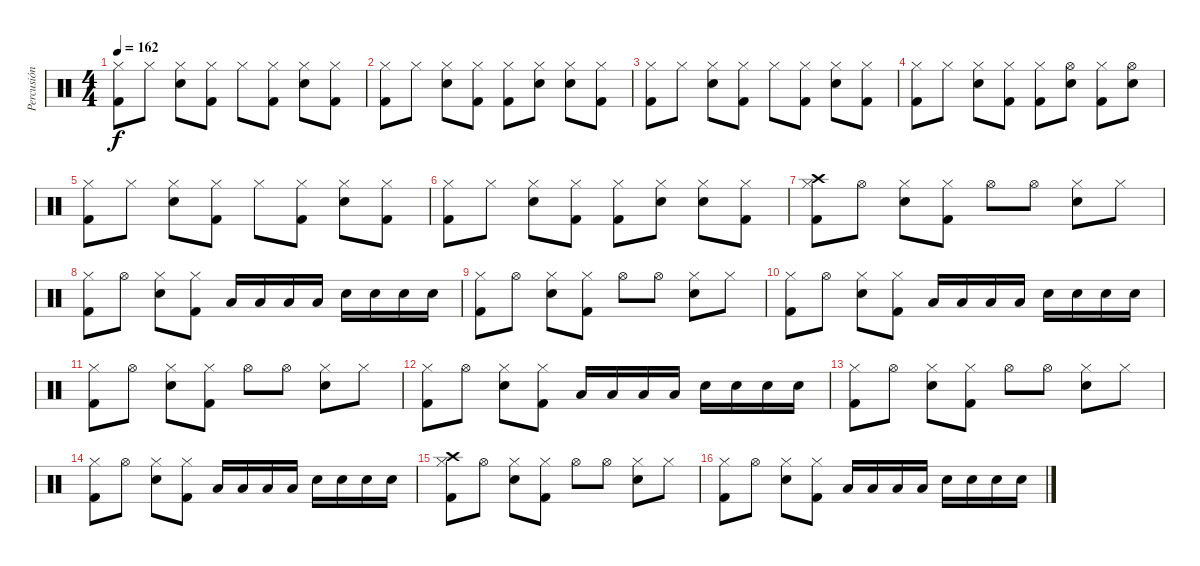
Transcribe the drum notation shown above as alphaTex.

\track ("Percusión" "Percusión") {instrument percussion}
\staff {score}
\articulation defaults
\ts (4 4)
\tempo 162
\clef neutral
\ks c
("Hi-Hat (closed)" "Kick (hit) 2").8{dy f} "Hi-Hat (closed)".8 ("Hi-Hat (closed)" "Snare (hit) 2").8 ("Hi-Hat (closed)" "Kick (hit) 2").8 "Hi-Hat (closed)".8 ("Hi-Hat (closed)" "Kick (hit) 2").8 ("Hi-Hat (closed)" "Snare (hit) 2").8 ("Hi-Hat (closed)" "Kick (hit) 2").8 |
("Hi-Hat (closed)" "Kick (hit) 2").8 "Hi-Hat (closed)".8 ("Hi-Hat (closed)" "Snare (hit) 2").8 ("Hi-Hat (closed)" "Kick (hit) 2").8 ("Hi-Hat (closed)" "Kick (hit) 2").8 ("Hi-Hat (closed)" "Snare (hit) 2").8 ("Hi-Hat (closed)" "Snare (hit) 2").8 ("Hi-Hat (closed)" "Kick (hit) 2").8 |
("Hi-Hat (closed)" "Kick (hit) 2").8 "Hi-Hat (closed)".8 ("Hi-Hat (closed)" "Snare (hit) 2").8 ("Hi-Hat (closed)" "Kick (hit) 2").8 "Hi-Hat (closed)".8 ("Hi-Hat (closed)" "Kick (hit) 2").8 ("Hi-Hat (closed)" "Snare (hit) 2").8 ("Hi-Hat (closed)" "Kick (hit) 2").8 |
("Hi-Hat (closed)" "Kick (hit) 2").8 "Hi-Hat (closed)".8 ("Hi-Hat (closed)" "Snare (hit) 2").8 ("Hi-Hat (closed)" "Kick (hit) 2").8 ("Hi-Hat (closed)" "Kick (hit) 2").8 ("Hi-Hat (open)" "Snare (hit) 2").8 ("Hi-Hat (closed)" "Kick (hit) 2").8 ("Hi-Hat (open)" "Snare (hit) 2").8 |
("Hi-Hat (closed)" "Kick (hit) 2").8 "Hi-Hat (closed)".8 ("Hi-Hat (closed)" "Snare (hit) 2").8 ("Hi-Hat (closed)" "Kick (hit) 2").8 "Hi-Hat (closed)".8 ("Hi-Hat (closed)" "Kick (hit) 2").8 ("Hi-Hat (closed)" "Snare (hit) 2").8 ("Hi-Hat (closed)" "Kick (hit) 2").8 |
("Hi-Hat (closed)" "Kick (hit) 2").8 "Hi-Hat (closed)".8 ("Hi-Hat (closed)" "Snare (hit) 2").8 ("Hi-Hat (closed)" "Kick (hit) 2").8 ("Hi-Hat (closed)" "Kick (hit) 2").8 ("Hi-Hat (closed)" "Snare (hit) 2").8 ("Hi-Hat (closed)" "Snare (hit) 2").8 ("Hi-Hat (closed)" "Kick (hit) 2").8 |
("Crash high (hit)" "Hi-Hat (closed)" "Kick (hit) 2").8 "Hi-Hat (open)".8 ("Hi-Hat (closed)" "Snare (hit) 2").8 ("Hi-Hat (closed)" "Kick (hit) 2").8 "Hi-Hat (open)".8 "Hi-Hat (open)".8 ("Hi-Hat (closed)" "Snare (hit) 2").8 "Hi-Hat (closed)".8 |
("Hi-Hat (closed)" "Kick (hit) 2").8 "Hi-Hat (open)".8 ("Hi-Hat (closed)" "Snare (hit) 2").8 ("Hi-Hat (closed)" "Kick (hit) 2").8 "Low Tom (hit)".16 "Low Tom (hit)".16 "Low Tom (hit)".16 "Low Tom (hit)".16 "Snare (hit) 2".16 "Snare (hit) 2".16 "Snare (hit) 2".16 "Snare (hit) 2".16 |
("Hi-Hat (closed)" "Kick (hit) 2").8 "Hi-Hat (open)".8 ("Hi-Hat (closed)" "Snare (hit) 2").8 ("Hi-Hat (closed)" "Kick (hit) 2").8 "Hi-Hat (open)".8 "Hi-Hat (open)".8 ("Hi-Hat (closed)" "Snare (hit) 2").8 "Hi-Hat (closed)".8 |
("Hi-Hat (closed)" "Kick (hit) 2").8 "Hi-Hat (open)".8 ("Hi-Hat (closed)" "Snare (hit) 2").8 ("Hi-Hat (closed)" "Kick (hit) 2").8 "Low Tom (hit)".16 "Low Tom (hit)".16 "Low Tom (hit)".16 "Low Tom (hit)".16 "Snare (hit) 2".16 "Snare (hit) 2".16 "Snare (hit) 2".16 "Snare (hit) 2".16 |
("Hi-Hat (closed)" "Kick (hit) 2").8 "Hi-Hat (open)".8 ("Hi-Hat (closed)" "Snare (hit) 2").8 ("Hi-Hat (closed)" "Kick (hit) 2").8 "Hi-Hat (open)".8 "Hi-Hat (open)".8 ("Hi-Hat (closed)" "Snare (hit) 2").8 "Hi-Hat (closed)".8 |
("Hi-Hat (closed)" "Kick (hit) 2").8 "Hi-Hat (open)".8 ("Hi-Hat (closed)" "Snare (hit) 2").8 ("Hi-Hat (closed)" "Kick (hit) 2").8 "Low Tom (hit)".16 "Low Tom (hit)".16 "Low Tom (hit)".16 "Low Tom (hit)".16 "Snare (hit) 2".16 "Snare (hit) 2".16 "Snare (hit) 2".16 "Snare (hit) 2".16 |
("Hi-Hat (closed)" "Kick (hit) 2").8 "Hi-Hat (open)".8 ("Hi-Hat (closed)" "Snare (hit) 2").8 ("Hi-Hat (closed)" "Kick (hit) 2").8 "Hi-Hat (open)".8 "Hi-Hat (open)".8 ("Hi-Hat (closed)" "Snare (hit) 2").8 "Hi-Hat (closed)".8 |
("Hi-Hat (closed)" "Kick (hit) 2").8 "Hi-Hat (open)".8 ("Hi-Hat (closed)" "Snare (hit) 2").8 ("Hi-Hat (closed)" "Kick (hit) 2").8 "Low Tom (hit)".16 "Low Tom (hit)".16 "Low Tom (hit)".16 "Low Tom (hit)".16 "Snare (hit) 2".16 "Snare (hit) 2".16 "Snare (hit) 2".16 "Snare (hit) 2".16 |
("Crash high (hit)" "Hi-Hat (closed)" "Kick (hit) 2").8 "Hi-Hat (open)".8 ("Hi-Hat (closed)" "Snare (hit) 2").8 ("Hi-Hat (closed)" "Kick (hit) 2").8 "Hi-Hat (open)".8 "Hi-Hat (open)".8 ("Hi-Hat (closed)" "Snare (hit) 2").8 "Hi-Hat (closed)".8 |
("Hi-Hat (closed)" "Kick (hit) 2").8 "Hi-Hat (open)".8 ("Hi-Hat (closed)" "Snare (hit) 2").8 ("Hi-Hat (closed)" "Kick (hit) 2").8 "Low Tom (hit)".16 "Low Tom (hit)".16 "Low Tom (hit)".16 "Low Tom (hit)".16 "Snare (hit) 2".16 "Snare (hit) 2".16 "Snare (hit) 2".16 "Snare (hit) 2".16
